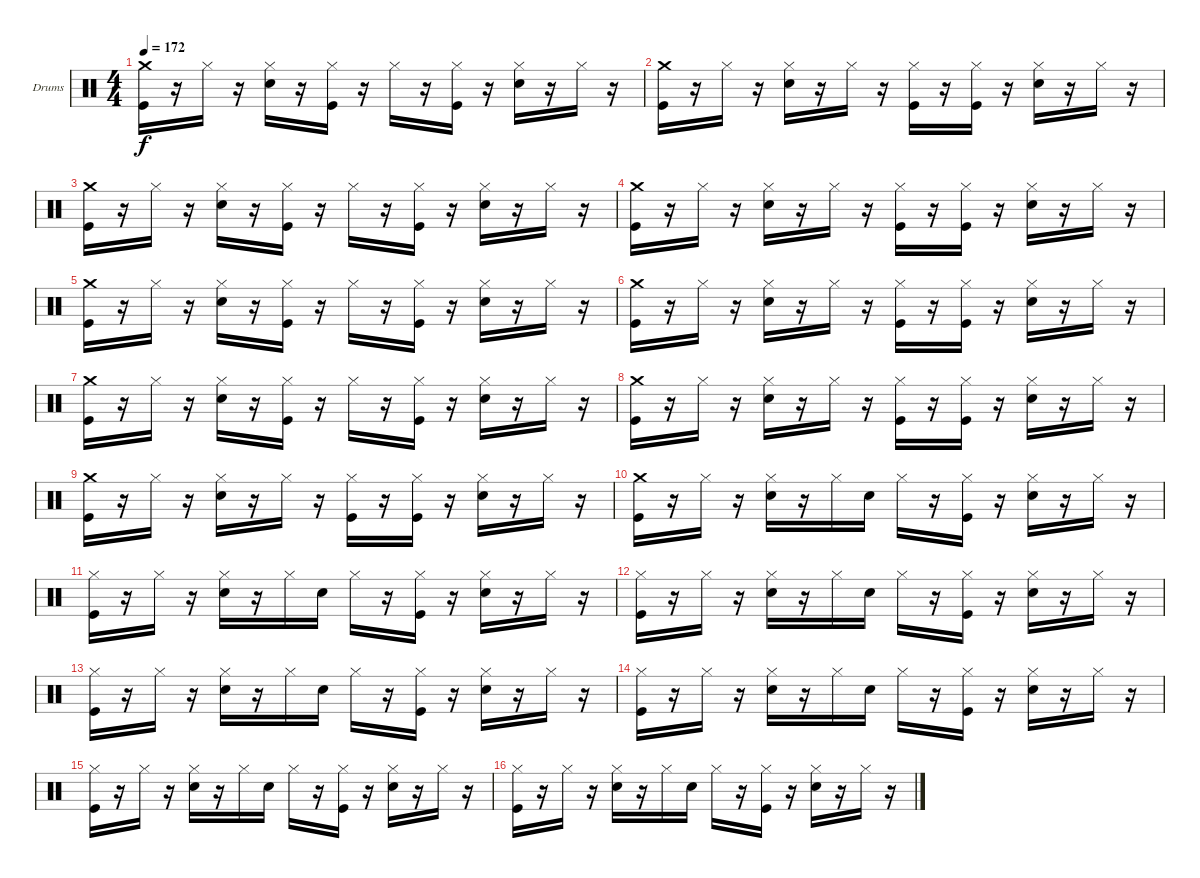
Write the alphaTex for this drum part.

\bracketExtendMode groupsimilarinstruments
\firstSystemTrackNameOrientation horizontal
\otherSystemsTrackNameOrientation horizontal
\track ("Drumkit" "Drums") {instrument percussion}
\staff {score}
\articulation defaults
\ts (4 4)
\tempo 172
\clef neutral
\ks c
("Kick (hit)" "Crash medium (hit)").16{dy f} r.16 "Hi-Hat (closed)".16 r.16 ("Snare (hit) 2" "Hi-Hat (closed)").16 r.16 ("Kick (hit)" "Hi-Hat (closed)").16 r.16 "Hi-Hat (closed)".16 r.16 ("Kick (hit)" "Hi-Hat (closed)").16 r.16 ("Snare (hit) 2" "Hi-Hat (closed)").16 r.16 "Hi-Hat (closed)".16 r.16 |
("Kick (hit)" "Crash medium (hit)").16 r.16 "Hi-Hat (closed)".16 r.16 ("Snare (hit) 2" "Hi-Hat (closed)").16 r.16 "Hi-Hat (closed)".16 r.16 ("Kick (hit)" "Hi-Hat (closed)").16 r.16 ("Kick (hit)" "Hi-Hat (closed)").16 r.16 ("Snare (hit) 2" "Hi-Hat (closed)").16 r.16 "Hi-Hat (closed)".16 r.16 |
("Kick (hit)" "Crash medium (hit)").16 r.16 "Hi-Hat (closed)".16 r.16 ("Snare (hit) 2" "Hi-Hat (closed)").16 r.16 ("Kick (hit)" "Hi-Hat (closed)").16 r.16 "Hi-Hat (closed)".16 r.16 ("Kick (hit)" "Hi-Hat (closed)").16 r.16 ("Snare (hit) 2" "Hi-Hat (closed)").16 r.16 "Hi-Hat (closed)".16 r.16 |
("Kick (hit)" "Crash medium (hit)").16 r.16 "Hi-Hat (closed)".16 r.16 ("Snare (hit) 2" "Hi-Hat (closed)").16 r.16 "Hi-Hat (closed)".16 r.16 ("Kick (hit)" "Hi-Hat (closed)").16 r.16 ("Kick (hit)" "Hi-Hat (closed)").16 r.16 ("Snare (hit) 2" "Hi-Hat (closed)").16 r.16 "Hi-Hat (closed)".16 r.16 |
("Kick (hit)" "Crash medium (hit)").16 r.16 "Hi-Hat (closed)".16 r.16 ("Snare (hit) 2" "Hi-Hat (closed)").16 r.16 ("Kick (hit)" "Hi-Hat (closed)").16 r.16 "Hi-Hat (closed)".16 r.16 ("Kick (hit)" "Hi-Hat (closed)").16 r.16 ("Snare (hit) 2" "Hi-Hat (closed)").16 r.16 "Hi-Hat (closed)".16 r.16 |
("Kick (hit)" "Crash medium (hit)").16 r.16 "Hi-Hat (closed)".16 r.16 ("Snare (hit) 2" "Hi-Hat (closed)").16 r.16 "Hi-Hat (closed)".16 r.16 ("Kick (hit)" "Hi-Hat (closed)").16 r.16 ("Kick (hit)" "Hi-Hat (closed)").16 r.16 ("Snare (hit) 2" "Hi-Hat (closed)").16 r.16 "Hi-Hat (closed)".16 r.16 |
("Kick (hit)" "Crash medium (hit)").16 r.16 "Hi-Hat (closed)".16 r.16 ("Snare (hit) 2" "Hi-Hat (closed)").16 r.16 ("Kick (hit)" "Hi-Hat (closed)").16 r.16 "Hi-Hat (closed)".16 r.16 ("Kick (hit)" "Hi-Hat (closed)").16 r.16 ("Snare (hit) 2" "Hi-Hat (closed)").16 r.16 "Hi-Hat (closed)".16 r.16 |
("Kick (hit)" "Crash medium (hit)").16 r.16 "Hi-Hat (closed)".16 r.16 ("Snare (hit) 2" "Hi-Hat (closed)").16 r.16 "Hi-Hat (closed)".16 r.16 ("Kick (hit)" "Hi-Hat (closed)").16 r.16 ("Kick (hit)" "Hi-Hat (closed)").16 r.16 ("Snare (hit) 2" "Hi-Hat (closed)").16 r.16 "Hi-Hat (closed)".16 r.16 |
("Kick (hit)" "Crash medium (hit)").16 r.16 "Hi-Hat (closed)".16 r.16 ("Snare (hit) 2" "Hi-Hat (closed)").16 r.16 "Hi-Hat (closed)".16 r.16 ("Kick (hit)" "Hi-Hat (closed)").16 r.16 ("Kick (hit)" "Hi-Hat (closed)").16 r.16 ("Snare (hit) 2" "Hi-Hat (closed)").16 r.16 "Hi-Hat (closed)".16 r.16 |
("Kick (hit)" "Crash medium (hit)").16 r.16 "Hi-Hat (closed)".16 r.16 ("Snare (hit) 2" "Hi-Hat (closed)").16 r.16 "Hi-Hat (closed)".16 "Snare (hit) 2".16 "Hi-Hat (closed)".16 r.16 ("Kick (hit)" "Hi-Hat (closed)").16 r.16 ("Snare (hit) 2" "Hi-Hat (closed)").16 r.16 "Hi-Hat (closed)".16 r.16 |
("Kick (hit)" "Hi-Hat (closed)").16 r.16 "Hi-Hat (closed)".16 r.16 ("Snare (hit) 2" "Hi-Hat (closed)").16 r.16 "Hi-Hat (closed)".16 "Snare (hit) 2".16 "Hi-Hat (closed)".16 r.16 ("Kick (hit)" "Hi-Hat (closed)").16 r.16 ("Snare (hit) 2" "Hi-Hat (closed)").16 r.16 "Hi-Hat (closed)".16 r.16 |
("Kick (hit)" "Hi-Hat (closed)").16 r.16 "Hi-Hat (closed)".16 r.16 ("Snare (hit) 2" "Hi-Hat (closed)").16 r.16 "Hi-Hat (closed)".16 "Snare (hit) 2".16 "Hi-Hat (closed)".16 r.16 ("Kick (hit)" "Hi-Hat (closed)").16 r.16 ("Snare (hit) 2" "Hi-Hat (closed)").16 r.16 "Hi-Hat (closed)".16 r.16 |
("Kick (hit)" "Hi-Hat (closed)").16 r.16 "Hi-Hat (closed)".16 r.16 ("Snare (hit) 2" "Hi-Hat (closed)").16 r.16 "Hi-Hat (closed)".16 "Snare (hit) 2".16 "Hi-Hat (closed)".16 r.16 ("Kick (hit)" "Hi-Hat (closed)").16 r.16 ("Snare (hit) 2" "Hi-Hat (closed)").16 r.16 "Hi-Hat (closed)".16 r.16 |
("Kick (hit)" "Hi-Hat (closed)").16 r.16 "Hi-Hat (closed)".16 r.16 ("Snare (hit) 2" "Hi-Hat (closed)").16 r.16 "Hi-Hat (closed)".16 "Snare (hit) 2".16 "Hi-Hat (closed)".16 r.16 ("Kick (hit)" "Hi-Hat (closed)").16 r.16 ("Snare (hit) 2" "Hi-Hat (closed)").16 r.16 "Hi-Hat (closed)".16 r.16 |
("Kick (hit)" "Hi-Hat (closed)").16 r.16 "Hi-Hat (closed)".16 r.16 ("Snare (hit) 2" "Hi-Hat (closed)").16 r.16 "Hi-Hat (closed)".16 "Snare (hit) 2".16 "Hi-Hat (closed)".16 r.16 ("Kick (hit)" "Hi-Hat (closed)").16 r.16 ("Snare (hit) 2" "Hi-Hat (closed)").16 r.16 "Hi-Hat (closed)".16 r.16 |
("Kick (hit)" "Hi-Hat (closed)").16 r.16 "Hi-Hat (closed)".16 r.16 ("Snare (hit) 2" "Hi-Hat (closed)").16 r.16 "Hi-Hat (closed)".16 "Snare (hit) 2".16 "Hi-Hat (closed)".16 r.16 ("Kick (hit)" "Hi-Hat (closed)").16 r.16 ("Snare (hit) 2" "Hi-Hat (closed)").16 r.16 "Hi-Hat (closed)".16 r.16
